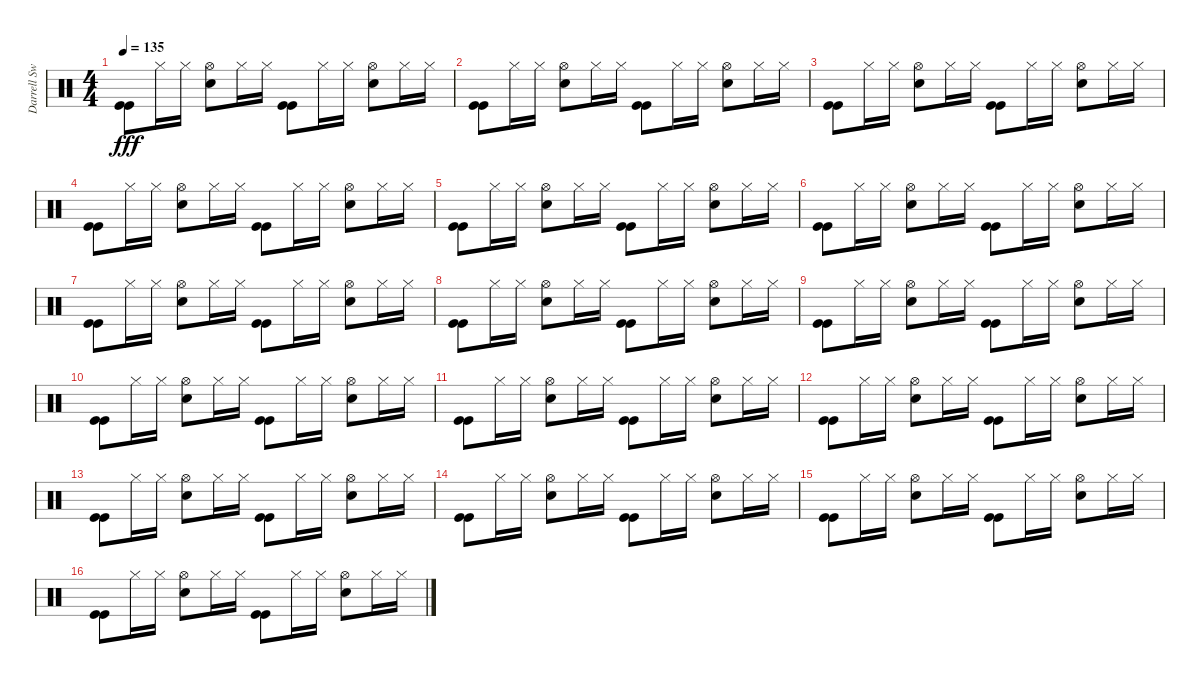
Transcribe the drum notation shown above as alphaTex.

\track ("Darrell Sweet (drums)" "Darrell Sw") {instrument percussion}
\staff {score}
\articulation defaults
\ts (4 4)
\tempo 135
\clef neutral
\ks c
("Kick (hit)" "Kick (hit)").8{dy fff} "Hi-Hat (closed)".16 "Hi-Hat (closed)".16 ("Snare (hit) 2" "Hi-Hat (open)").8 "Hi-Hat (closed)".16 "Hi-Hat (closed)".16 ("Kick (hit)" "Kick (hit)").8 "Hi-Hat (closed)".16 "Hi-Hat (closed)".16 ("Snare (hit) 2" "Hi-Hat (open)").8 "Hi-Hat (closed)".16 "Hi-Hat (closed)".16 |
("Kick (hit)" "Kick (hit)").8 "Hi-Hat (closed)".16 "Hi-Hat (closed)".16 ("Snare (hit) 2" "Hi-Hat (open)").8 "Hi-Hat (closed)".16 "Hi-Hat (closed)".16 ("Kick (hit)" "Kick (hit)").8 "Hi-Hat (closed)".16 "Hi-Hat (closed)".16 ("Snare (hit) 2" "Hi-Hat (open)").8 "Hi-Hat (closed)".16 "Hi-Hat (closed)".16 |
("Kick (hit)" "Kick (hit)").8 "Hi-Hat (closed)".16 "Hi-Hat (closed)".16 ("Snare (hit) 2" "Hi-Hat (open)").8 "Hi-Hat (closed)".16 "Hi-Hat (closed)".16 ("Kick (hit)" "Kick (hit)").8 "Hi-Hat (closed)".16 "Hi-Hat (closed)".16 ("Snare (hit) 2" "Hi-Hat (open)").8 "Hi-Hat (closed)".16 "Hi-Hat (closed)".16 |
("Kick (hit)" "Kick (hit)").8 "Hi-Hat (closed)".16 "Hi-Hat (closed)".16 ("Snare (hit) 2" "Hi-Hat (open)").8 "Hi-Hat (closed)".16 "Hi-Hat (closed)".16 ("Kick (hit)" "Kick (hit)").8 "Hi-Hat (closed)".16 "Hi-Hat (closed)".16 ("Snare (hit) 2" "Hi-Hat (open)").8 "Hi-Hat (closed)".16 "Hi-Hat (closed)".16 |
("Kick (hit)" "Kick (hit)").8 "Hi-Hat (closed)".16 "Hi-Hat (closed)".16 ("Snare (hit) 2" "Hi-Hat (open)").8 "Hi-Hat (closed)".16 "Hi-Hat (closed)".16 ("Kick (hit)" "Kick (hit)").8 "Hi-Hat (closed)".16 "Hi-Hat (closed)".16 ("Snare (hit) 2" "Hi-Hat (open)").8 "Hi-Hat (closed)".16 "Hi-Hat (closed)".16 |
("Kick (hit)" "Kick (hit)").8 "Hi-Hat (closed)".16 "Hi-Hat (closed)".16 ("Snare (hit) 2" "Hi-Hat (open)").8 "Hi-Hat (closed)".16 "Hi-Hat (closed)".16 ("Kick (hit)" "Kick (hit)").8 "Hi-Hat (closed)".16 "Hi-Hat (closed)".16 ("Snare (hit) 2" "Hi-Hat (open)").8 "Hi-Hat (closed)".16 "Hi-Hat (closed)".16 |
("Kick (hit)" "Kick (hit)").8 "Hi-Hat (closed)".16 "Hi-Hat (closed)".16 ("Snare (hit) 2" "Hi-Hat (open)").8 "Hi-Hat (closed)".16 "Hi-Hat (closed)".16 ("Kick (hit)" "Kick (hit)").8 "Hi-Hat (closed)".16 "Hi-Hat (closed)".16 ("Snare (hit) 2" "Hi-Hat (open)").8 "Hi-Hat (closed)".16 "Hi-Hat (closed)".16 |
("Kick (hit)" "Kick (hit)").8 "Hi-Hat (closed)".16 "Hi-Hat (closed)".16 ("Snare (hit) 2" "Hi-Hat (open)").8 "Hi-Hat (closed)".16 "Hi-Hat (closed)".16 ("Kick (hit)" "Kick (hit)").8 "Hi-Hat (closed)".16 "Hi-Hat (closed)".16 ("Snare (hit) 2" "Hi-Hat (open)").8 "Hi-Hat (closed)".16 "Hi-Hat (closed)".16 |
("Kick (hit)" "Kick (hit)").8 "Hi-Hat (closed)".16 "Hi-Hat (closed)".16 ("Snare (hit) 2" "Hi-Hat (open)").8 "Hi-Hat (closed)".16 "Hi-Hat (closed)".16 ("Kick (hit)" "Kick (hit)").8 "Hi-Hat (closed)".16 "Hi-Hat (closed)".16 ("Snare (hit) 2" "Hi-Hat (open)").8 "Hi-Hat (closed)".16 "Hi-Hat (closed)".16 |
("Kick (hit)" "Kick (hit)").8 "Hi-Hat (closed)".16 "Hi-Hat (closed)".16 ("Snare (hit) 2" "Hi-Hat (open)").8 "Hi-Hat (closed)".16 "Hi-Hat (closed)".16 ("Kick (hit)" "Kick (hit)").8 "Hi-Hat (closed)".16 "Hi-Hat (closed)".16 ("Snare (hit) 2" "Hi-Hat (open)").8 "Hi-Hat (closed)".16 "Hi-Hat (closed)".16 |
("Kick (hit)" "Kick (hit)").8 "Hi-Hat (closed)".16 "Hi-Hat (closed)".16 ("Snare (hit) 2" "Hi-Hat (open)").8 "Hi-Hat (closed)".16 "Hi-Hat (closed)".16 ("Kick (hit)" "Kick (hit)").8 "Hi-Hat (closed)".16 "Hi-Hat (closed)".16 ("Snare (hit) 2" "Hi-Hat (open)").8 "Hi-Hat (closed)".16 "Hi-Hat (closed)".16 |
("Kick (hit)" "Kick (hit)").8 "Hi-Hat (closed)".16 "Hi-Hat (closed)".16 ("Snare (hit) 2" "Hi-Hat (open)").8 "Hi-Hat (closed)".16 "Hi-Hat (closed)".16 ("Kick (hit)" "Kick (hit)").8 "Hi-Hat (closed)".16 "Hi-Hat (closed)".16 ("Snare (hit) 2" "Hi-Hat (open)").8 "Hi-Hat (closed)".16 "Hi-Hat (closed)".16 |
("Kick (hit)" "Kick (hit)").8 "Hi-Hat (closed)".16 "Hi-Hat (closed)".16 ("Snare (hit) 2" "Hi-Hat (open)").8 "Hi-Hat (closed)".16 "Hi-Hat (closed)".16 ("Kick (hit)" "Kick (hit)").8 "Hi-Hat (closed)".16 "Hi-Hat (closed)".16 ("Snare (hit) 2" "Hi-Hat (open)").8 "Hi-Hat (closed)".16 "Hi-Hat (closed)".16 |
("Kick (hit)" "Kick (hit)").8 "Hi-Hat (closed)".16 "Hi-Hat (closed)".16 ("Snare (hit) 2" "Hi-Hat (open)").8 "Hi-Hat (closed)".16 "Hi-Hat (closed)".16 ("Kick (hit)" "Kick (hit)").8 "Hi-Hat (closed)".16 "Hi-Hat (closed)".16 ("Snare (hit) 2" "Hi-Hat (open)").8 "Hi-Hat (closed)".16 "Hi-Hat (closed)".16 |
("Kick (hit)" "Kick (hit)").8 "Hi-Hat (closed)".16 "Hi-Hat (closed)".16 ("Snare (hit) 2" "Hi-Hat (open)").8 "Hi-Hat (closed)".16 "Hi-Hat (closed)".16 ("Kick (hit)" "Kick (hit)").8 "Hi-Hat (closed)".16 "Hi-Hat (closed)".16 ("Snare (hit) 2" "Hi-Hat (open)").8 "Hi-Hat (closed)".16 "Hi-Hat (closed)".16 |
("Kick (hit)" "Kick (hit)").8 "Hi-Hat (closed)".16 "Hi-Hat (closed)".16 ("Snare (hit) 2" "Hi-Hat (open)").8 "Hi-Hat (closed)".16 "Hi-Hat (closed)".16 ("Kick (hit)" "Kick (hit)").8 "Hi-Hat (closed)".16 "Hi-Hat (closed)".16 ("Snare (hit) 2" "Hi-Hat (open)").8 "Hi-Hat (closed)".16 "Hi-Hat (closed)".16
